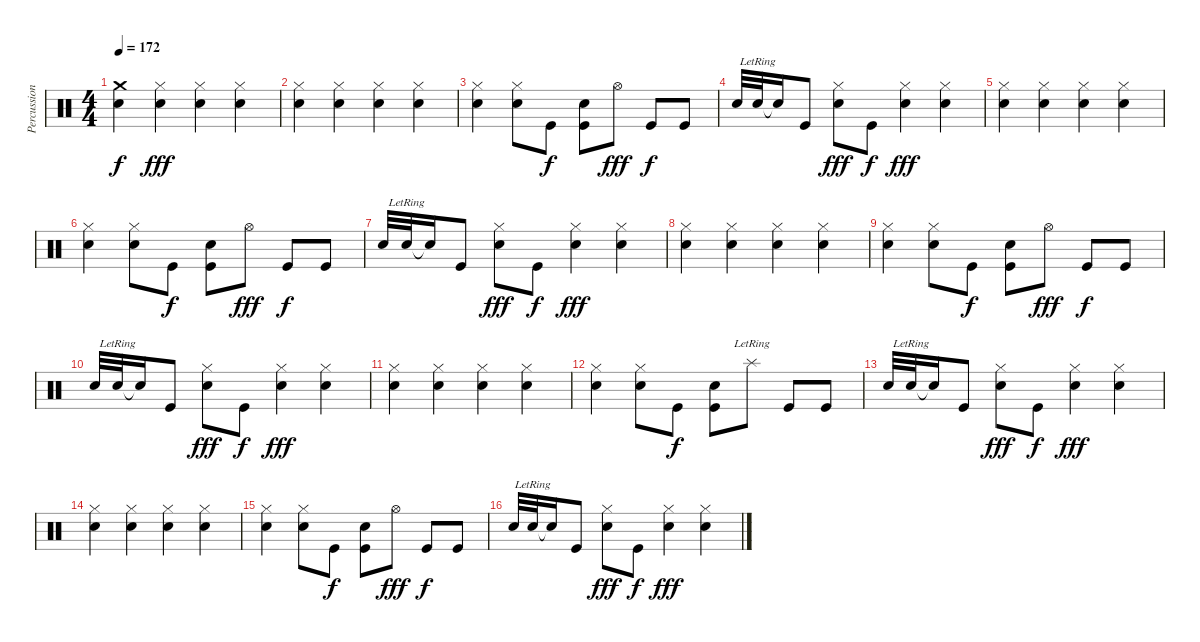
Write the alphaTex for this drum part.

\track ("Percussions" "Percussion") {instrument percussion}
\staff {score}
\articulation defaults
\ts (4 4)
\tempo 172
\clef neutral
\ks c
("Crash medium (hit)" "Snare (hit) 2").4{dy f} ("Hi-Hat (closed)" "Snare (hit) 2").4{dy fff} ("Hi-Hat (closed)" "Snare (hit) 2").4 ("Hi-Hat (closed)" "Snare (hit) 2").4 |
("Hi-Hat (closed)" "Snare (hit) 2").4 ("Hi-Hat (closed)" "Snare (hit) 2").4 ("Hi-Hat (closed)" "Snare (hit) 2").4 ("Hi-Hat (closed)" "Snare (hit) 2").4 |
("Hi-Hat (closed)" "Snare (hit) 2").4 ("Hi-Hat (closed)" "Snare (hit) 2").8 "Kick (hit)".8{dy f} ("Snare (hit) 2" "Kick (hit)").8 "Hi-Hat (open)".8{dy fff} "Kick (hit)".8{dy f} "Kick (hit)".8 |
"Snare (hit) 2".32 "Snare (hit) 2"{lr}.32 "Snare (hit)"{t}.16 "Kick (hit)".8 ("Hi-Hat (closed)" "Snare (hit) 2").8{dy fff} "Kick (hit)".8{dy f} ("Hi-Hat (closed)" "Snare (hit) 2").4{dy fff} ("Hi-Hat (closed)" "Snare (hit) 2").4 |
("Hi-Hat (closed)" "Snare (hit) 2").4 ("Hi-Hat (closed)" "Snare (hit) 2").4 ("Hi-Hat (closed)" "Snare (hit) 2").4 ("Hi-Hat (closed)" "Snare (hit) 2").4 |
("Hi-Hat (closed)" "Snare (hit) 2").4 ("Hi-Hat (closed)" "Snare (hit) 2").8 "Kick (hit)".8{dy f} ("Snare (hit) 2" "Kick (hit)").8 "Hi-Hat (open)".8{dy fff} "Kick (hit)".8{dy f} "Kick (hit)".8 |
"Snare (hit) 2".32 "Snare (hit) 2"{lr}.32 "Snare (hit)"{t}.16 "Kick (hit)".8 ("Hi-Hat (closed)" "Snare (hit) 2").8{dy fff} "Kick (hit)".8{dy f} ("Hi-Hat (closed)" "Snare (hit) 2").4{dy fff} ("Hi-Hat (closed)" "Snare (hit) 2").4 |
("Hi-Hat (closed)" "Snare (hit) 2").4 ("Hi-Hat (closed)" "Snare (hit) 2").4 ("Hi-Hat (closed)" "Snare (hit) 2").4 ("Hi-Hat (closed)" "Snare (hit) 2").4 |
("Hi-Hat (closed)" "Snare (hit) 2").4 ("Hi-Hat (closed)" "Snare (hit) 2").8 "Kick (hit)".8{dy f} ("Snare (hit) 2" "Kick (hit)").8 "Hi-Hat (open)".8{dy fff} "Kick (hit)".8{dy f} "Kick (hit)".8 |
"Snare (hit) 2".32 "Snare (hit) 2"{lr}.32 "Snare (hit)"{t}.16 "Kick (hit)".8 ("Hi-Hat (closed)" "Snare (hit) 2").8{dy fff} "Kick (hit)".8{dy f} ("Hi-Hat (closed)" "Snare (hit) 2").4{dy fff} ("Hi-Hat (closed)" "Snare (hit) 2").4 |
("Hi-Hat (closed)" "Snare (hit) 2").4 ("Hi-Hat (closed)" "Snare (hit) 2").4 ("Hi-Hat (closed)" "Snare (hit) 2").4 ("Hi-Hat (closed)" "Snare (hit) 2").4 |
("Hi-Hat (closed)" "Snare (hit) 2").4 ("Hi-Hat (closed)" "Snare (hit) 2").8 "Kick (hit)".8{dy f} ("Snare (hit) 2" "Kick (hit)").8 "Splash (hit)"{lr}.8 "Kick (hit)".8 "Kick (hit)".8 |
"Snare (hit) 2".32 "Snare (hit) 2"{lr}.32 "Snare (hit)"{t}.16 "Kick (hit)".8 ("Hi-Hat (closed)" "Snare (hit) 2").8{dy fff} "Kick (hit)".8{dy f} ("Hi-Hat (closed)" "Snare (hit) 2").4{dy fff} ("Hi-Hat (closed)" "Snare (hit) 2").4 |
("Hi-Hat (closed)" "Snare (hit) 2").4 ("Hi-Hat (closed)" "Snare (hit) 2").4 ("Hi-Hat (closed)" "Snare (hit) 2").4 ("Hi-Hat (closed)" "Snare (hit) 2").4 |
("Hi-Hat (closed)" "Snare (hit) 2").4 ("Hi-Hat (closed)" "Snare (hit) 2").8 "Kick (hit)".8{dy f} ("Snare (hit) 2" "Kick (hit)").8 "Hi-Hat (open)".8{dy fff} "Kick (hit)".8{dy f} "Kick (hit)".8 |
"Snare (hit) 2".32 "Snare (hit) 2"{lr}.32 "Snare (hit)"{t}.16 "Kick (hit)".8 ("Hi-Hat (closed)" "Snare (hit) 2").8{dy fff} "Kick (hit)".8{dy f} ("Hi-Hat (closed)" "Snare (hit) 2").4{dy fff} ("Hi-Hat (closed)" "Snare (hit) 2").4
